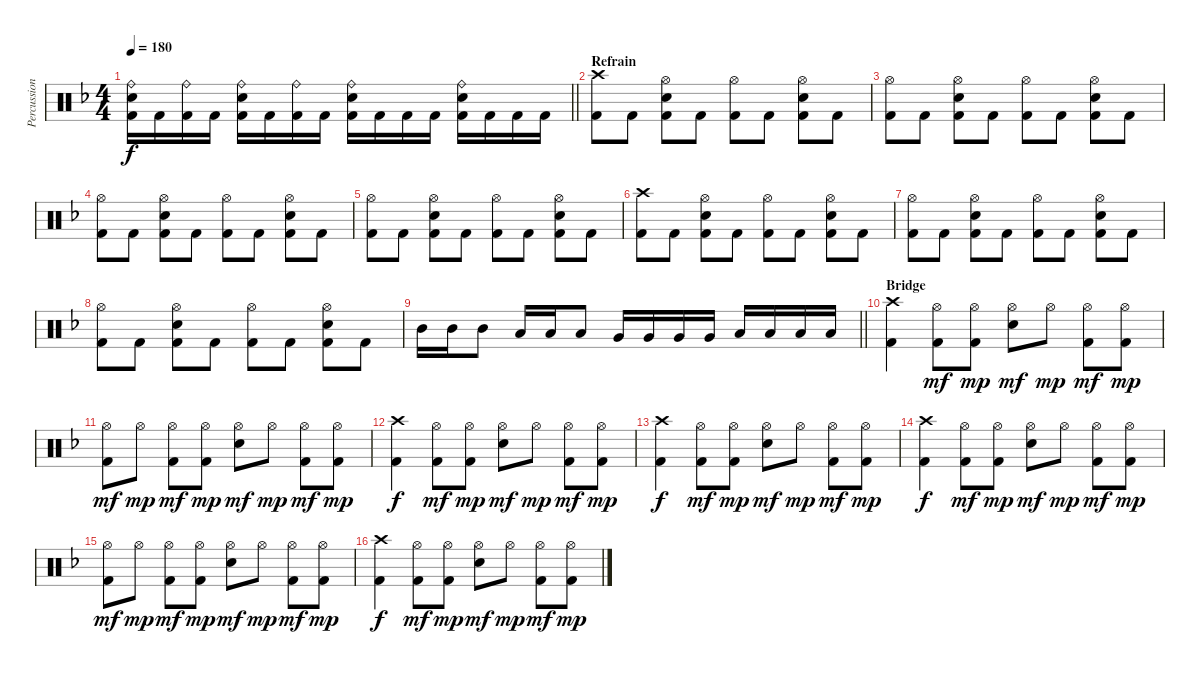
\track ("Percussion" "Percussion") {instrument percussion}
\staff {score}
\articulation defaults
\ts (4 4)
\tempo 180
\clef neutral
\barLineRight lightlight
\ks dminor
("Ride (bell)" "Snare (hit) 2" "Kick (hit) 2").16{dy f} "Kick (hit) 2".16 ("Ride (bell)" "Kick (hit) 2").16 "Kick (hit) 2".16 ("Ride (bell)" "Snare (hit) 2" "Kick (hit) 2").16 "Kick (hit) 2".16 ("Ride (bell)" "Kick (hit) 2").16 "Kick (hit) 2".16 ("Ride (bell)" "Snare (hit) 2" "Kick (hit) 2").16 "Kick (hit) 2".16 "Kick (hit) 2".16 "Kick (hit) 2".16 ("Ride (bell)" "Snare (hit) 2" "Kick (hit) 2").16 "Kick (hit) 2".16 "Kick (hit) 2".16 "Kick (hit) 2".16 |
\section ("" "Refrain")
("Crash high (hit)" "Kick (hit) 2").8 "Kick (hit) 2".8 ("Hi-Hat (open)" "Snare (hit) 2" "Kick (hit) 2").8 "Kick (hit) 2".8 ("Hi-Hat (open)" "Kick (hit) 2").8 "Kick (hit) 2".8 ("Hi-Hat (open)" "Snare (hit) 2" "Kick (hit) 2").8 "Kick (hit) 2".8 |
("Hi-Hat (open)" "Kick (hit) 2").8 "Kick (hit) 2".8 ("Hi-Hat (open)" "Snare (hit) 2" "Kick (hit) 2").8 "Kick (hit) 2".8 ("Hi-Hat (open)" "Kick (hit) 2").8 "Kick (hit) 2".8 ("Hi-Hat (open)" "Snare (hit) 2" "Kick (hit) 2").8 "Kick (hit) 2".8 |
("Hi-Hat (open)" "Kick (hit) 2").8 "Kick (hit) 2".8 ("Hi-Hat (open)" "Snare (hit) 2" "Kick (hit) 2").8 "Kick (hit) 2".8 ("Hi-Hat (open)" "Kick (hit) 2").8 "Kick (hit) 2".8 ("Hi-Hat (open)" "Snare (hit) 2" "Kick (hit) 2").8 "Kick (hit) 2".8 |
("Hi-Hat (open)" "Kick (hit) 2").8 "Kick (hit) 2".8 ("Hi-Hat (open)" "Snare (hit) 2" "Kick (hit) 2").8 "Kick (hit) 2".8 ("Hi-Hat (open)" "Kick (hit) 2").8 "Kick (hit) 2".8 ("Hi-Hat (open)" "Snare (hit) 2" "Kick (hit) 2").8 "Kick (hit) 2".8 |
("Crash high (hit)" "Kick (hit) 2").8 "Kick (hit) 2".8 ("Hi-Hat (open)" "Snare (hit) 2" "Kick (hit) 2").8 "Kick (hit) 2".8 ("Hi-Hat (open)" "Kick (hit) 2").8 "Kick (hit) 2".8 ("Hi-Hat (open)" "Snare (hit) 2" "Kick (hit) 2").8 "Kick (hit) 2".8 |
("Hi-Hat (open)" "Kick (hit) 2").8 "Kick (hit) 2".8 ("Hi-Hat (open)" "Snare (hit) 2" "Kick (hit) 2").8 "Kick (hit) 2".8 ("Hi-Hat (open)" "Kick (hit) 2").8 "Kick (hit) 2".8 ("Hi-Hat (open)" "Snare (hit) 2" "Kick (hit) 2").8 "Kick (hit) 2".8 |
("Hi-Hat (open)" "Kick (hit) 2").8 "Kick (hit) 2".8 ("Hi-Hat (open)" "Snare (hit) 2" "Kick (hit) 2").8 "Kick (hit) 2".8 ("Hi-Hat (open)" "Kick (hit) 2").8 "Kick (hit) 2".8 ("Hi-Hat (open)" "Snare (hit) 2" "Kick (hit) 2").8 "Kick (hit) 2".8 |
\barLineRight lightlight "Mid Tom (hit)".16 "Mid Tom (hit)".16 "Mid Tom (hit)".8 "Low Tom (hit)".16 "Low Tom (hit)".16 "Low Tom (hit)".8 "Very Low Tom (hit)".16 "Very Low Tom (hit)".16 "Very Low Tom (hit)".16 "Very Low Tom (hit)".16 "Low Floor Tom (hit)".16 "Low Floor Tom (hit)".16 "Low Floor Tom (hit)".16 "Low Floor Tom (hit)".16
|
\section ("" "Bridge")
("Crash high (hit)" "Kick (hit) 2").4 ("Hi-Hat (open)" "Kick (hit) 2").8{dy mf} ("Hi-Hat (open)" "Kick (hit) 2").8{dy mp} ("Hi-Hat (open)" "Snare (hit) 2").8{dy mf} "Hi-Hat (open)".8{dy mp} ("Hi-Hat (open)" "Kick (hit) 2").8{dy mf} ("Hi-Hat (open)" "Kick (hit) 2").8{dy mp} |
("Hi-Hat (open)" "Kick (hit) 2").8{dy mf} "Hi-Hat (open)".8{dy mp} ("Hi-Hat (open)" "Kick (hit) 2").8{dy mf} ("Hi-Hat (open)" "Kick (hit) 2").8{dy mp} ("Hi-Hat (open)" "Snare (hit) 2").8{dy mf} "Hi-Hat (open)".8{dy mp} ("Hi-Hat (open)" "Kick (hit) 2").8{dy mf} ("Hi-Hat (open)" "Kick (hit) 2").8{dy mp} |
("Crash high (hit)" "Kick (hit) 2").4{dy f} ("Hi-Hat (open)" "Kick (hit) 2").8{dy mf} ("Hi-Hat (open)" "Kick (hit) 2").8{dy mp} ("Hi-Hat (open)" "Snare (hit) 2").8{dy mf} "Hi-Hat (open)".8{dy mp} ("Hi-Hat (open)" "Kick (hit) 2").8{dy mf} ("Hi-Hat (open)" "Kick (hit) 2").8{dy mp} |
("Crash high (hit)" "Kick (hit) 2").4{dy f} ("Hi-Hat (open)" "Kick (hit) 2").8{dy mf} ("Hi-Hat (open)" "Kick (hit) 2").8{dy mp} ("Hi-Hat (open)" "Snare (hit) 2").8{dy mf} "Hi-Hat (open)".8{dy mp} ("Hi-Hat (open)" "Kick (hit) 2").8{dy mf} ("Hi-Hat (open)" "Kick (hit) 2").8{dy mp} |
("Crash high (hit)" "Kick (hit) 2").4{dy f} ("Hi-Hat (open)" "Kick (hit) 2").8{dy mf} ("Hi-Hat (open)" "Kick (hit) 2").8{dy mp} ("Hi-Hat (open)" "Snare (hit) 2").8{dy mf} "Hi-Hat (open)".8{dy mp} ("Hi-Hat (open)" "Kick (hit) 2").8{dy mf} ("Hi-Hat (open)" "Kick (hit) 2").8{dy mp} |
("Hi-Hat (open)" "Kick (hit) 2").8{dy mf} "Hi-Hat (open)".8{dy mp} ("Hi-Hat (open)" "Kick (hit) 2").8{dy mf} ("Hi-Hat (open)" "Kick (hit) 2").8{dy mp} ("Hi-Hat (open)" "Snare (hit) 2").8{dy mf} "Hi-Hat (open)".8{dy mp} ("Hi-Hat (open)" "Kick (hit) 2").8{dy mf} ("Hi-Hat (open)" "Kick (hit) 2").8{dy mp} |
("Crash high (hit)" "Kick (hit) 2").4{dy f} ("Hi-Hat (open)" "Kick (hit) 2").8{dy mf} ("Hi-Hat (open)" "Kick (hit) 2").8{dy mp} ("Hi-Hat (open)" "Snare (hit) 2").8{dy mf} "Hi-Hat (open)".8{dy mp} ("Hi-Hat (open)" "Kick (hit) 2").8{dy mf} ("Hi-Hat (open)" "Kick (hit) 2").8{dy mp}
